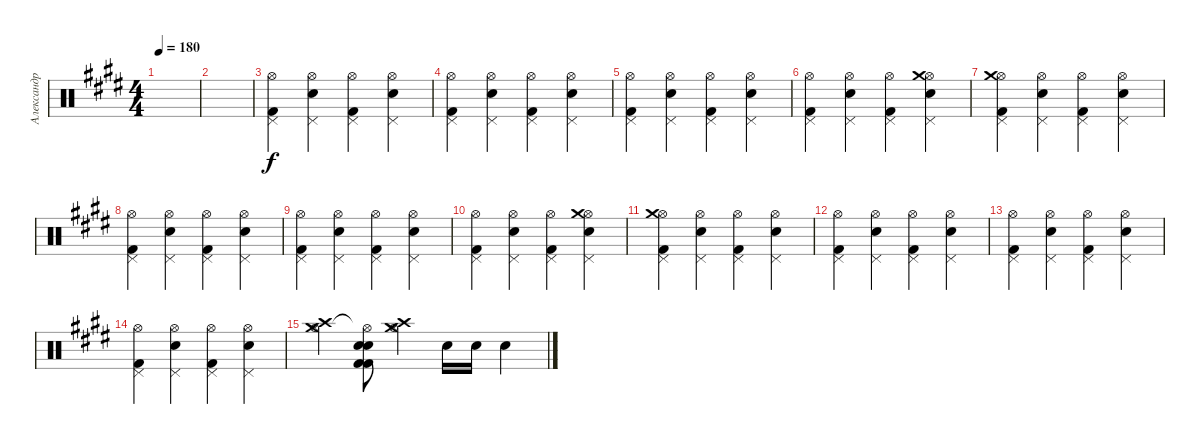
\track ("Александр Новиков" "Александр ") {instrument percussion}
\staff {score}
\articulation defaults
\ts (4 4)
\tempo 180
\clef neutral
\ks c#minor
|
|
("Hi-Hat (open)" "Pedal Hi-Hat (hit)" "Kick (hit) 2").4 ("Hi-Hat (open)" "Pedal Hi-Hat (hit)" "Electric Snare (hit)").4 ("Hi-Hat (open)" "Pedal Hi-Hat (hit)" "Kick (hit) 2").4 ("Hi-Hat (open)" "Pedal Hi-Hat (hit)" "Electric Snare (hit)").4 |
("Hi-Hat (open)" "Pedal Hi-Hat (hit)" "Kick (hit) 2").4 ("Hi-Hat (open)" "Pedal Hi-Hat (hit)" "Electric Snare (hit)").4 ("Hi-Hat (open)" "Pedal Hi-Hat (hit)" "Kick (hit) 2").4 ("Hi-Hat (open)" "Pedal Hi-Hat (hit)" "Electric Snare (hit)").4 |
("Hi-Hat (open)" "Pedal Hi-Hat (hit)" "Kick (hit) 2").4 ("Hi-Hat (open)" "Pedal Hi-Hat (hit)" "Electric Snare (hit)").4 ("Hi-Hat (open)" "Pedal Hi-Hat (hit)" "Kick (hit) 2").4 ("Hi-Hat (open)" "Pedal Hi-Hat (hit)" "Electric Snare (hit)").4 |
("Hi-Hat (open)" "Pedal Hi-Hat (hit)" "Kick (hit) 2").4 ("Hi-Hat (open)" "Pedal Hi-Hat (hit)" "Electric Snare (hit)").4 ("Hi-Hat (open)" "Pedal Hi-Hat (hit)" "Kick (hit) 2").4 ("Hi-Hat (open)" "Pedal Hi-Hat (hit)" "Electric Snare (hit)" "Crash medium (hit)").4 |
("Hi-Hat (open)" "Pedal Hi-Hat (hit)" "Kick (hit) 2" "Crash medium (hit)").4 ("Hi-Hat (open)" "Pedal Hi-Hat (hit)" "Electric Snare (hit)").4 ("Hi-Hat (open)" "Pedal Hi-Hat (hit)" "Kick (hit) 2").4 ("Hi-Hat (open)" "Pedal Hi-Hat (hit)" "Electric Snare (hit)").4 |
("Hi-Hat (open)" "Pedal Hi-Hat (hit)" "Kick (hit) 2").4 ("Hi-Hat (open)" "Pedal Hi-Hat (hit)" "Electric Snare (hit)").4 ("Hi-Hat (open)" "Pedal Hi-Hat (hit)" "Kick (hit) 2").4 ("Hi-Hat (open)" "Pedal Hi-Hat (hit)" "Electric Snare (hit)").4 |
("Hi-Hat (open)" "Pedal Hi-Hat (hit)" "Kick (hit) 2").4 ("Hi-Hat (open)" "Pedal Hi-Hat (hit)" "Electric Snare (hit)").4 ("Hi-Hat (open)" "Pedal Hi-Hat (hit)" "Kick (hit) 2").4 ("Hi-Hat (open)" "Pedal Hi-Hat (hit)" "Electric Snare (hit)").4 |
("Hi-Hat (open)" "Pedal Hi-Hat (hit)" "Kick (hit) 2").4 ("Hi-Hat (open)" "Pedal Hi-Hat (hit)" "Electric Snare (hit)").4 ("Hi-Hat (open)" "Pedal Hi-Hat (hit)" "Kick (hit) 2").4 ("Hi-Hat (open)" "Pedal Hi-Hat (hit)" "Electric Snare (hit)" "Crash medium (hit)").4 |
("Hi-Hat (open)" "Pedal Hi-Hat (hit)" "Kick (hit) 2" "Crash medium (hit)").4 ("Hi-Hat (open)" "Pedal Hi-Hat (hit)" "Electric Snare (hit)").4 ("Hi-Hat (open)" "Pedal Hi-Hat (hit)" "Kick (hit) 2").4 ("Hi-Hat (open)" "Pedal Hi-Hat (hit)" "Electric Snare (hit)").4 |
("Hi-Hat (open)" "Pedal Hi-Hat (hit)" "Kick (hit) 2").4 ("Hi-Hat (open)" "Pedal Hi-Hat (hit)" "Electric Snare (hit)").4 ("Hi-Hat (open)" "Pedal Hi-Hat (hit)" "Kick (hit) 2").4 ("Hi-Hat (open)" "Pedal Hi-Hat (hit)" "Electric Snare (hit)").4 |
("Hi-Hat (open)" "Pedal Hi-Hat (hit)" "Kick (hit) 2").4 ("Hi-Hat (open)" "Pedal Hi-Hat (hit)" "Electric Snare (hit)").4 ("Hi-Hat (open)" "Pedal Hi-Hat (hit)" "Kick (hit) 2").4 ("Hi-Hat (open)" "Pedal Hi-Hat (hit)" "Electric Snare (hit)").4 |
("Hi-Hat (open)" "Pedal Hi-Hat (hit)" "Kick (hit) 2").4 ("Hi-Hat (open)" "Pedal Hi-Hat (hit)" "Electric Snare (hit)").4 ("Hi-Hat (open)" "Pedal Hi-Hat (hit)" "Kick (hit) 2").4 ("Hi-Hat (open)" "Pedal Hi-Hat (hit)" "Electric Snare (hit)").4 |
("Hi-Hat (open)" "Crash medium (hit)" "Crash high (hit)").4 ("Hi-Hat (open)"{t} "Kick (hit) 2" "Kick (hit) 2" "Snare (hit)" "Snare (hit)").8 ("Hi-Hat (open)" "Crash medium (hit)" "Crash high (hit)").4 "Electric Snare (hit)".16 "Electric Snare (hit)".16 "Electric Snare (hit)".4
